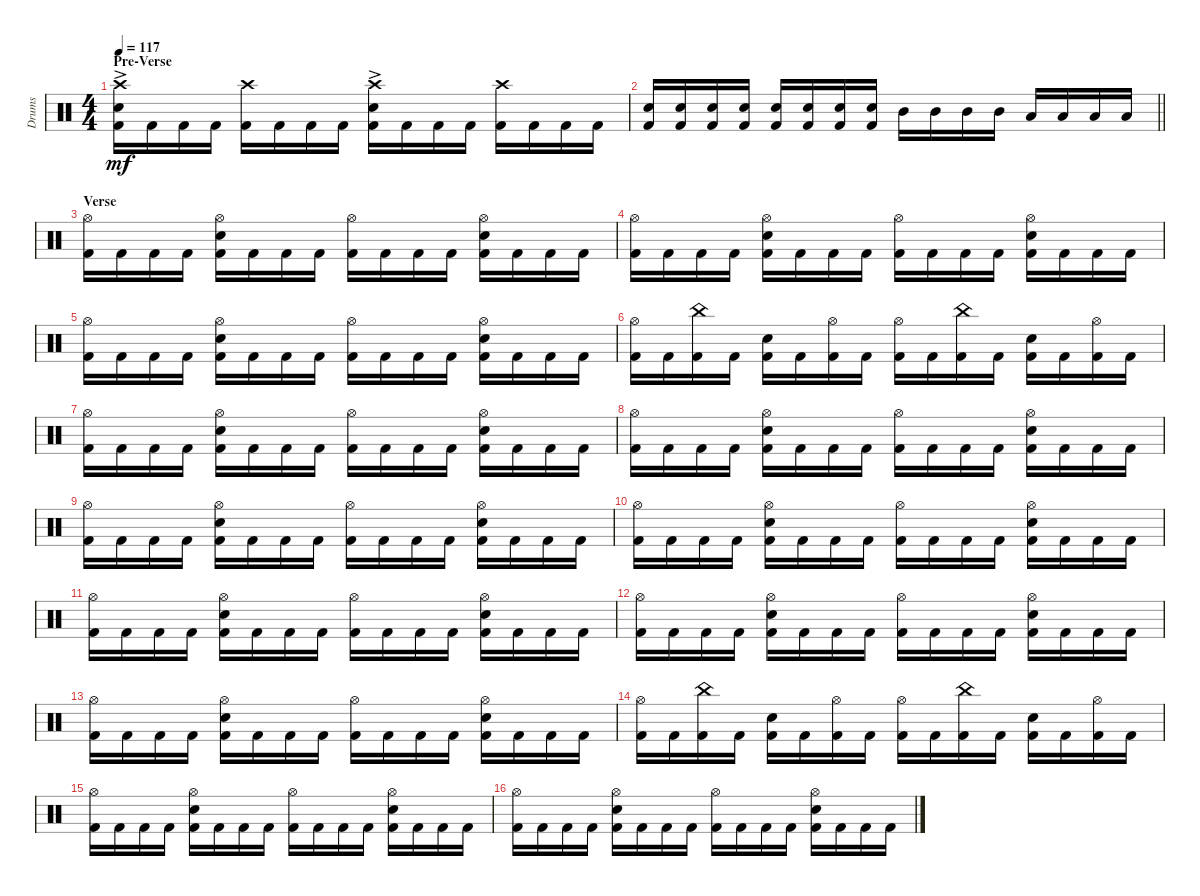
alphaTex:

\track ("Drums" "Drums") {instrument percussion}
\staff {score}
\articulation defaults
\ts (4 4)
\section ("" "Pre-Verse")
\tempo 117
\clef neutral
\ks c
("Crash high (hit)" "Snare (hit) 2"{ac} "Kick (hit) 2").16{dy mf} "Kick (hit) 2".16 "Kick (hit) 2".16 "Kick (hit) 2".16 ("Crash high (hit)" "Kick (hit) 2").16 "Kick (hit) 2".16 "Kick (hit) 2".16 "Kick (hit) 2".16 ("Crash high (hit)" "Snare (hit) 2"{ac} "Kick (hit) 2").16 "Kick (hit) 2".16 "Kick (hit) 2".16 "Kick (hit) 2".16 ("Crash high (hit)" "Kick (hit) 2").16 "Kick (hit) 2".16 "Kick (hit) 2".16 "Kick (hit) 2".16 |
\barLineRight lightlight
("Snare (hit) 2" "Kick (hit) 2").16 ("Snare (hit) 2" "Kick (hit) 2").16 ("Snare (hit) 2" "Kick (hit) 2").16 ("Snare (hit) 2" "Kick (hit) 2").16 ("Snare (hit) 2" "Kick (hit) 2").16 ("Snare (hit) 2" "Kick (hit) 2").16 ("Snare (hit) 2" "Kick (hit) 2").16 ("Snare (hit) 2" "Kick (hit) 2").16 "Mid Tom (hit)".16 "Mid Tom (hit)".16 "Mid Tom (hit)".16 "Mid Tom (hit)".16 "Low Tom (hit)".16 "Low Tom (hit)".16 "Low Floor Tom (hit)".16 "Low Floor Tom (hit)".16 |
\section ("" "Verse")
("Hi-Hat (open)" "Kick (hit) 2").16 "Kick (hit) 2".16 "Kick (hit) 2".16 "Kick (hit) 2".16 ("Hi-Hat (open)" "Snare (hit) 2" "Kick (hit) 2").16 "Kick (hit) 2".16 "Kick (hit) 2".16 "Kick (hit) 2".16 ("Hi-Hat (open)" "Kick (hit) 2").16 "Kick (hit) 2".16 "Kick (hit) 2".16 "Kick (hit) 2".16 ("Hi-Hat (open)" "Snare (hit) 2" "Kick (hit) 2").16 "Kick (hit) 2".16 "Kick (hit) 2".16 "Kick (hit) 2".16 |
("Hi-Hat (open)" "Kick (hit) 2").16 "Kick (hit) 2".16 "Kick (hit) 2".16 "Kick (hit) 2".16 ("Hi-Hat (open)" "Snare (hit) 2" "Kick (hit) 2").16 "Kick (hit) 2".16 "Kick (hit) 2".16 "Kick (hit) 2".16 ("Hi-Hat (open)" "Kick (hit) 2").16 "Kick (hit) 2".16 "Kick (hit) 2".16 "Kick (hit) 2".16 ("Hi-Hat (open)" "Snare (hit) 2" "Kick (hit) 2").16 "Kick (hit) 2".16 "Kick (hit) 2".16 "Kick (hit) 2".16 |
("Hi-Hat (open)" "Kick (hit) 2").16 "Kick (hit) 2".16 "Kick (hit) 2".16 "Kick (hit) 2".16 ("Hi-Hat (open)" "Snare (hit) 2" "Kick (hit) 2").16 "Kick (hit) 2".16 "Kick (hit) 2".16 "Kick (hit) 2".16 ("Hi-Hat (open)" "Kick (hit) 2").16 "Kick (hit) 2".16 "Kick (hit) 2".16 "Kick (hit) 2".16 ("Hi-Hat (open)" "Snare (hit) 2" "Kick (hit) 2").16 "Kick (hit) 2".16 "Kick (hit) 2".16 "Kick (hit) 2".16 |
("Hi-Hat (open)" "Kick (hit) 2").16 "Kick (hit) 2".16 ("China (hit)" "Kick (hit) 2").16 "Kick (hit) 2".16 ("Snare (hit) 2" "Kick (hit) 2").16 "Kick (hit) 2".16 ("Hi-Hat (open)" "Kick (hit) 2").16 "Kick (hit) 2".16 ("Hi-Hat (open)" "Kick (hit) 2").16 "Kick (hit) 2".16 ("China (hit)" "Kick (hit) 2").16 "Kick (hit) 2".16 ("Snare (hit) 2" "Kick (hit) 2").16 "Kick (hit) 2".16 ("Hi-Hat (open)" "Kick (hit) 2").16 "Kick (hit) 2".16 |
("Hi-Hat (open)" "Kick (hit) 2").16 "Kick (hit) 2".16 "Kick (hit) 2".16 "Kick (hit) 2".16 ("Hi-Hat (open)" "Snare (hit) 2" "Kick (hit) 2").16 "Kick (hit) 2".16 "Kick (hit) 2".16 "Kick (hit) 2".16 ("Hi-Hat (open)" "Kick (hit) 2").16 "Kick (hit) 2".16 "Kick (hit) 2".16 "Kick (hit) 2".16 ("Hi-Hat (open)" "Snare (hit) 2" "Kick (hit) 2").16 "Kick (hit) 2".16 "Kick (hit) 2".16 "Kick (hit) 2".16 |
("Hi-Hat (open)" "Kick (hit) 2").16 "Kick (hit) 2".16 "Kick (hit) 2".16 "Kick (hit) 2".16 ("Hi-Hat (open)" "Snare (hit) 2" "Kick (hit) 2").16 "Kick (hit) 2".16 "Kick (hit) 2".16 "Kick (hit) 2".16 ("Hi-Hat (open)" "Kick (hit) 2").16 "Kick (hit) 2".16 "Kick (hit) 2".16 "Kick (hit) 2".16 ("Hi-Hat (open)" "Snare (hit) 2" "Kick (hit) 2").16 "Kick (hit) 2".16 "Kick (hit) 2".16 "Kick (hit) 2".16 |
("Hi-Hat (open)" "Kick (hit) 2").16 "Kick (hit) 2".16 "Kick (hit) 2".16 "Kick (hit) 2".16 ("Hi-Hat (open)" "Snare (hit) 2" "Kick (hit) 2").16 "Kick (hit) 2".16 "Kick (hit) 2".16 "Kick (hit) 2".16 ("Hi-Hat (open)" "Kick (hit) 2").16 "Kick (hit) 2".16 "Kick (hit) 2".16 "Kick (hit) 2".16 ("Hi-Hat (open)" "Snare (hit) 2" "Kick (hit) 2").16 "Kick (hit) 2".16 "Kick (hit) 2".16 "Kick (hit) 2".16 |
("Hi-Hat (open)" "Kick (hit) 2").16 "Kick (hit) 2".16 "Kick (hit) 2".16 "Kick (hit) 2".16 ("Hi-Hat (open)" "Snare (hit) 2" "Kick (hit) 2").16 "Kick (hit) 2".16 "Kick (hit) 2".16 "Kick (hit) 2".16 ("Hi-Hat (open)" "Kick (hit) 2").16 "Kick (hit) 2".16 "Kick (hit) 2".16 "Kick (hit) 2".16 ("Hi-Hat (open)" "Snare (hit) 2" "Kick (hit) 2").16 "Kick (hit) 2".16 "Kick (hit) 2".16 "Kick (hit) 2".16 |
("Hi-Hat (open)" "Kick (hit) 2").16 "Kick (hit) 2".16 "Kick (hit) 2".16 "Kick (hit) 2".16 ("Hi-Hat (open)" "Snare (hit) 2" "Kick (hit) 2").16 "Kick (hit) 2".16 "Kick (hit) 2".16 "Kick (hit) 2".16 ("Hi-Hat (open)" "Kick (hit) 2").16 "Kick (hit) 2".16 "Kick (hit) 2".16 "Kick (hit) 2".16 ("Hi-Hat (open)" "Snare (hit) 2" "Kick (hit) 2").16 "Kick (hit) 2".16 "Kick (hit) 2".16 "Kick (hit) 2".16 |
("Hi-Hat (open)" "Kick (hit) 2").16 "Kick (hit) 2".16 "Kick (hit) 2".16 "Kick (hit) 2".16 ("Hi-Hat (open)" "Snare (hit) 2" "Kick (hit) 2").16 "Kick (hit) 2".16 "Kick (hit) 2".16 "Kick (hit) 2".16 ("Hi-Hat (open)" "Kick (hit) 2").16 "Kick (hit) 2".16 "Kick (hit) 2".16 "Kick (hit) 2".16 ("Hi-Hat (open)" "Snare (hit) 2" "Kick (hit) 2").16 "Kick (hit) 2".16 "Kick (hit) 2".16 "Kick (hit) 2".16 |
("Hi-Hat (open)" "Kick (hit) 2").16 "Kick (hit) 2".16 "Kick (hit) 2".16 "Kick (hit) 2".16 ("Hi-Hat (open)" "Snare (hit) 2" "Kick (hit) 2").16 "Kick (hit) 2".16 "Kick (hit) 2".16 "Kick (hit) 2".16 ("Hi-Hat (open)" "Kick (hit) 2").16 "Kick (hit) 2".16 "Kick (hit) 2".16 "Kick (hit) 2".16 ("Hi-Hat (open)" "Snare (hit) 2" "Kick (hit) 2").16 "Kick (hit) 2".16 "Kick (hit) 2".16 "Kick (hit) 2".16 |
("Hi-Hat (open)" "Kick (hit) 2").16 "Kick (hit) 2".16 ("China (hit)" "Kick (hit) 2").16 "Kick (hit) 2".16 ("Snare (hit) 2" "Kick (hit) 2").16 "Kick (hit) 2".16 ("Hi-Hat (open)" "Kick (hit) 2").16 "Kick (hit) 2".16 ("Hi-Hat (open)" "Kick (hit) 2").16 "Kick (hit) 2".16 ("China (hit)" "Kick (hit) 2").16 "Kick (hit) 2".16 ("Snare (hit) 2" "Kick (hit) 2").16 "Kick (hit) 2".16 ("Hi-Hat (open)" "Kick (hit) 2").16 "Kick (hit) 2".16 |
("Hi-Hat (open)" "Kick (hit) 2").16 "Kick (hit) 2".16 "Kick (hit) 2".16 "Kick (hit) 2".16 ("Hi-Hat (open)" "Snare (hit) 2" "Kick (hit) 2").16 "Kick (hit) 2".16 "Kick (hit) 2".16 "Kick (hit) 2".16 ("Hi-Hat (open)" "Kick (hit) 2").16 "Kick (hit) 2".16 "Kick (hit) 2".16 "Kick (hit) 2".16 ("Hi-Hat (open)" "Snare (hit) 2" "Kick (hit) 2").16 "Kick (hit) 2".16 "Kick (hit) 2".16 "Kick (hit) 2".16 |
("Hi-Hat (open)" "Kick (hit) 2").16 "Kick (hit) 2".16 "Kick (hit) 2".16 "Kick (hit) 2".16 ("Hi-Hat (open)" "Snare (hit) 2" "Kick (hit) 2").16 "Kick (hit) 2".16 "Kick (hit) 2".16 "Kick (hit) 2".16 ("Hi-Hat (open)" "Kick (hit) 2").16 "Kick (hit) 2".16 "Kick (hit) 2".16 "Kick (hit) 2".16 ("Hi-Hat (open)" "Snare (hit) 2" "Kick (hit) 2").16 "Kick (hit) 2".16 "Kick (hit) 2".16 "Kick (hit) 2".16
